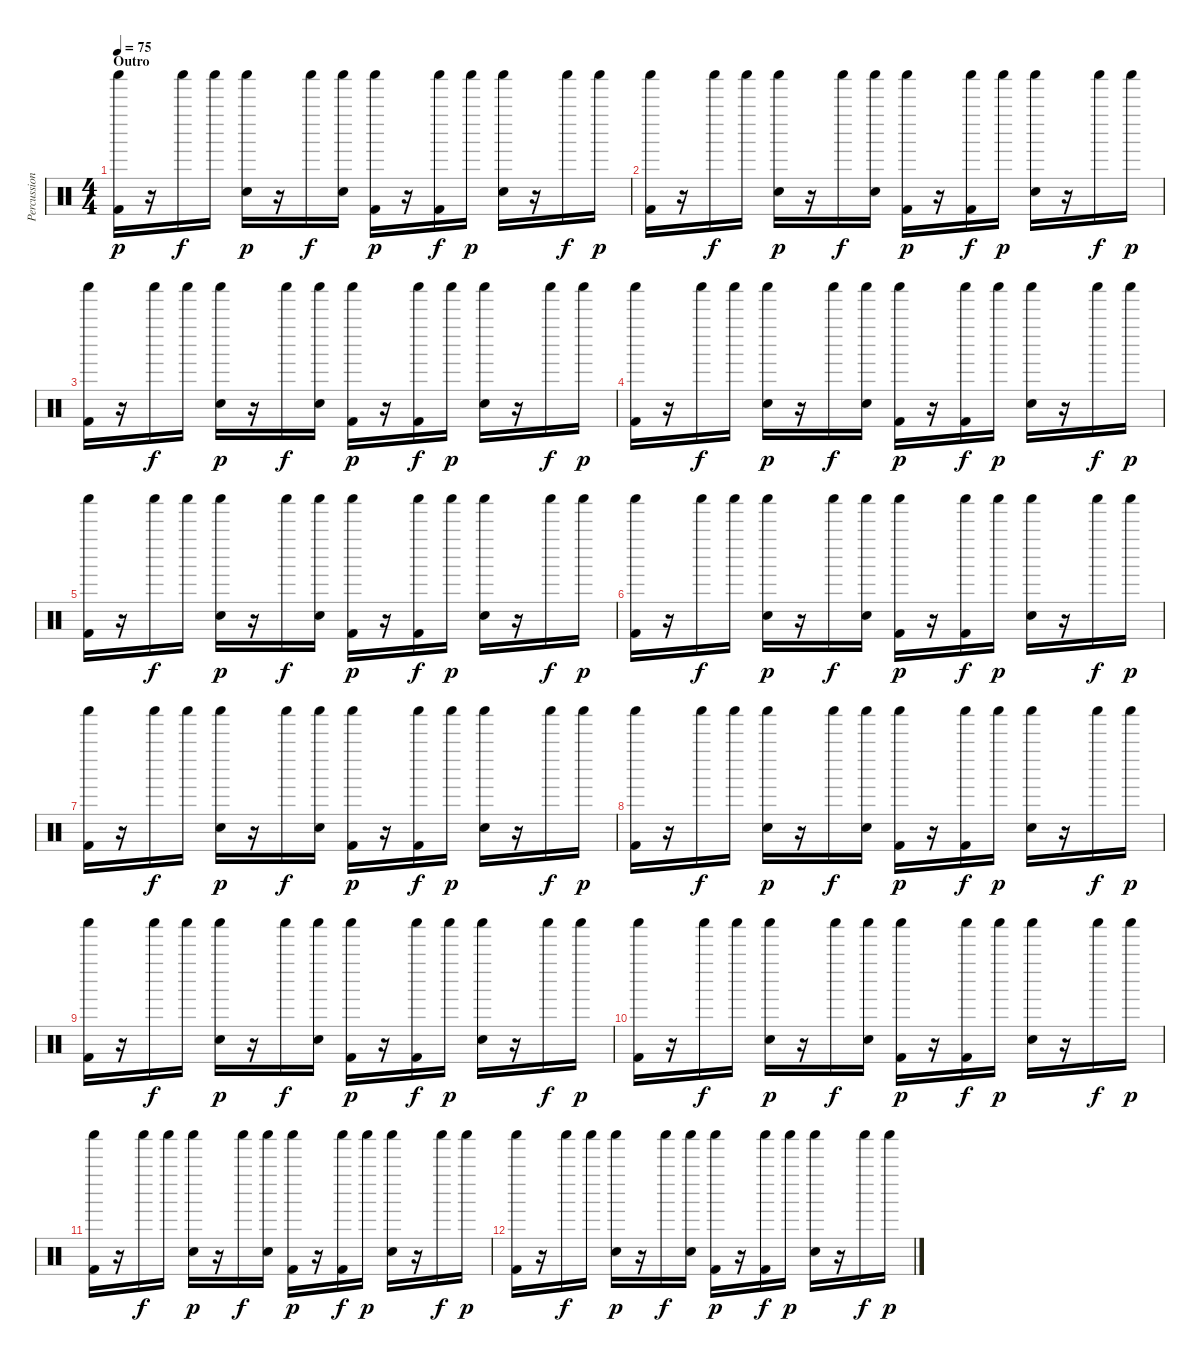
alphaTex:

\track ("Percussions - Dom Howard" "Percussion") {instrument percussion}
\staff {score}
\articulation defaults
\ts (4 4)
\section ("" "Outro")
\tempo 75
\clef neutral
\ks c
("Kick (hit) 2" "Shaker (hit)").16{dy p} r.16 "Shaker (hit)".16{dy f} "Shaker (hit)".16 ("Electric Snare (hit)" "Shaker (hit)").16{dy p} r.16 "Shaker (hit)".16{dy f} ("Electric Snare (hit)" "Shaker (hit)").16 ("Kick (hit) 2" "Shaker (hit)").16{dy p} r.16 ("Kick (hit) 2" "Shaker (hit)").16{dy f} "Shaker (hit)".16{dy p} ("Electric Snare (hit)" "Shaker (hit)").16 r.16 "Shaker (hit)".16{dy f} "Shaker (hit)".16{dy p} |
("Kick (hit) 2" "Shaker (hit)").16 r.16 "Shaker (hit)".16{dy f} "Shaker (hit)".16 ("Electric Snare (hit)" "Shaker (hit)").16{dy p} r.16 "Shaker (hit)".16{dy f} ("Electric Snare (hit)" "Shaker (hit)").16 ("Kick (hit) 2" "Shaker (hit)").16{dy p} r.16 ("Kick (hit) 2" "Shaker (hit)").16{dy f} "Shaker (hit)".16{dy p} ("Electric Snare (hit)" "Shaker (hit)").16 r.16 "Shaker (hit)".16{dy f} "Shaker (hit)".16{dy p} |
("Kick (hit) 2" "Shaker (hit)").16 r.16 "Shaker (hit)".16{dy f} "Shaker (hit)".16 ("Electric Snare (hit)" "Shaker (hit)").16{dy p} r.16 "Shaker (hit)".16{dy f} ("Electric Snare (hit)" "Shaker (hit)").16 ("Kick (hit) 2" "Shaker (hit)").16{dy p} r.16 ("Kick (hit) 2" "Shaker (hit)").16{dy f} "Shaker (hit)".16{dy p} ("Electric Snare (hit)" "Shaker (hit)").16 r.16 "Shaker (hit)".16{dy f} "Shaker (hit)".16{dy p} |
("Kick (hit) 2" "Shaker (hit)").16 r.16 "Shaker (hit)".16{dy f} "Shaker (hit)".16 ("Electric Snare (hit)" "Shaker (hit)").16{dy p} r.16 "Shaker (hit)".16{dy f} ("Electric Snare (hit)" "Shaker (hit)").16 ("Kick (hit) 2" "Shaker (hit)").16{dy p} r.16 ("Kick (hit) 2" "Shaker (hit)").16{dy f} "Shaker (hit)".16{dy p} ("Electric Snare (hit)" "Shaker (hit)").16 r.16 "Shaker (hit)".16{dy f} "Shaker (hit)".16{dy p} |
("Kick (hit) 2" "Shaker (hit)").16 r.16 "Shaker (hit)".16{dy f} "Shaker (hit)".16 ("Electric Snare (hit)" "Shaker (hit)").16{dy p} r.16 "Shaker (hit)".16{dy f} ("Electric Snare (hit)" "Shaker (hit)").16 ("Kick (hit) 2" "Shaker (hit)").16{dy p} r.16 ("Kick (hit) 2" "Shaker (hit)").16{dy f} "Shaker (hit)".16{dy p} ("Electric Snare (hit)" "Shaker (hit)").16 r.16 "Shaker (hit)".16{dy f} "Shaker (hit)".16{dy p} |
("Kick (hit) 2" "Shaker (hit)").16 r.16 "Shaker (hit)".16{dy f} "Shaker (hit)".16 ("Electric Snare (hit)" "Shaker (hit)").16{dy p} r.16 "Shaker (hit)".16{dy f} ("Electric Snare (hit)" "Shaker (hit)").16 ("Kick (hit) 2" "Shaker (hit)").16{dy p} r.16 ("Kick (hit) 2" "Shaker (hit)").16{dy f} "Shaker (hit)".16{dy p} ("Electric Snare (hit)" "Shaker (hit)").16 r.16 "Shaker (hit)".16{dy f} "Shaker (hit)".16{dy p} |
("Kick (hit) 2" "Shaker (hit)").16 r.16 "Shaker (hit)".16{dy f} "Shaker (hit)".16 ("Electric Snare (hit)" "Shaker (hit)").16{dy p} r.16 "Shaker (hit)".16{dy f} ("Electric Snare (hit)" "Shaker (hit)").16 ("Kick (hit) 2" "Shaker (hit)").16{dy p} r.16 ("Kick (hit) 2" "Shaker (hit)").16{dy f} "Shaker (hit)".16{dy p} ("Electric Snare (hit)" "Shaker (hit)").16 r.16 "Shaker (hit)".16{dy f} "Shaker (hit)".16{dy p} |
("Kick (hit) 2" "Shaker (hit)").16 r.16 "Shaker (hit)".16{dy f} "Shaker (hit)".16 ("Electric Snare (hit)" "Shaker (hit)").16{dy p} r.16 "Shaker (hit)".16{dy f} ("Electric Snare (hit)" "Shaker (hit)").16 ("Kick (hit) 2" "Shaker (hit)").16{dy p} r.16 ("Kick (hit) 2" "Shaker (hit)").16{dy f} "Shaker (hit)".16{dy p} ("Electric Snare (hit)" "Shaker (hit)").16 r.16 "Shaker (hit)".16{dy f} "Shaker (hit)".16{dy p} |
("Kick (hit) 2" "Shaker (hit)").16 r.16 "Shaker (hit)".16{dy f} "Shaker (hit)".16 ("Electric Snare (hit)" "Shaker (hit)").16{dy p} r.16 "Shaker (hit)".16{dy f} ("Electric Snare (hit)" "Shaker (hit)").16 ("Kick (hit) 2" "Shaker (hit)").16{dy p} r.16 ("Kick (hit) 2" "Shaker (hit)").16{dy f} "Shaker (hit)".16{dy p} ("Electric Snare (hit)" "Shaker (hit)").16 r.16 "Shaker (hit)".16{dy f} "Shaker (hit)".16{dy p} |
("Kick (hit) 2" "Shaker (hit)").16 r.16 "Shaker (hit)".16{dy f} "Shaker (hit)".16 ("Electric Snare (hit)" "Shaker (hit)").16{dy p} r.16 "Shaker (hit)".16{dy f} ("Electric Snare (hit)" "Shaker (hit)").16 ("Kick (hit) 2" "Shaker (hit)").16{dy p} r.16 ("Kick (hit) 2" "Shaker (hit)").16{dy f} "Shaker (hit)".16{dy p} ("Electric Snare (hit)" "Shaker (hit)").16 r.16 "Shaker (hit)".16{dy f} "Shaker (hit)".16{dy p} |
("Kick (hit) 2" "Shaker (hit)").16 r.16 "Shaker (hit)".16{dy f} "Shaker (hit)".16 ("Electric Snare (hit)" "Shaker (hit)").16{dy p} r.16 "Shaker (hit)".16{dy f} ("Electric Snare (hit)" "Shaker (hit)").16 ("Kick (hit) 2" "Shaker (hit)").16{dy p} r.16 ("Kick (hit) 2" "Shaker (hit)").16{dy f} "Shaker (hit)".16{dy p} ("Electric Snare (hit)" "Shaker (hit)").16 r.16 "Shaker (hit)".16{dy f} "Shaker (hit)".16{dy p} |
("Kick (hit) 2" "Shaker (hit)").16 r.16 "Shaker (hit)".16{dy f} "Shaker (hit)".16 ("Electric Snare (hit)" "Shaker (hit)").16{dy p} r.16 "Shaker (hit)".16{dy f} ("Electric Snare (hit)" "Shaker (hit)").16 ("Kick (hit) 2" "Shaker (hit)").16{dy p} r.16 ("Kick (hit) 2" "Shaker (hit)").16{dy f} "Shaker (hit)".16{dy p} ("Electric Snare (hit)" "Shaker (hit)").16 r.16 "Shaker (hit)".16{dy f} "Shaker (hit)".16{dy p}
